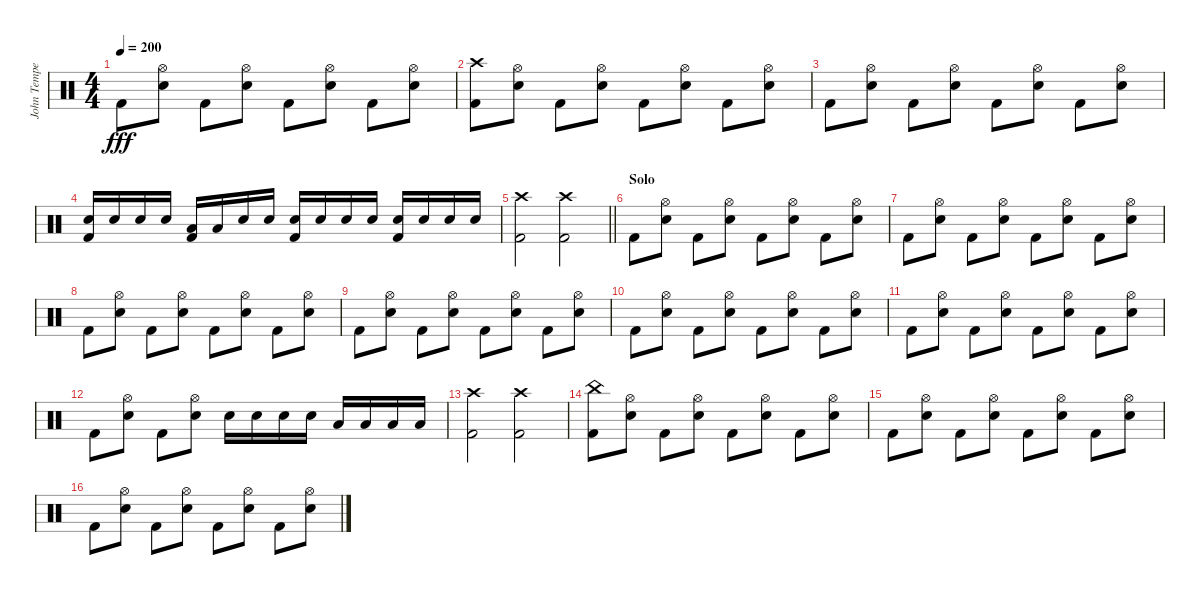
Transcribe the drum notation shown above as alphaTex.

\track ("John Tempesta" "John Tempe") {instrument percussion}
\staff {score}
\articulation defaults
\ts (4 4)
\tempo 200
\clef neutral
\ks c "Kick (hit) 2".8{dy fff}
("Electric Snare (hit)" "Hi-Hat (open)").8 "Kick (hit) 2".8 ("Electric Snare (hit)" "Hi-Hat (open)").8 "Kick (hit) 2".8 ("Electric Snare (hit)" "Hi-Hat (open)").8 "Kick (hit) 2".8 ("Electric Snare (hit)" "Hi-Hat (open)").8 |
("Crash high (hit)" "Kick (hit) 2").8 ("Electric Snare (hit)" "Hi-Hat (open)").8 "Kick (hit) 2".8 ("Electric Snare (hit)" "Hi-Hat (open)").8 "Kick (hit) 2".8 ("Electric Snare (hit)" "Hi-Hat (open)").8 "Kick (hit) 2".8 ("Electric Snare (hit)" "Hi-Hat (open)").8 |
"Kick (hit) 2".8 ("Electric Snare (hit)" "Hi-Hat (open)").8 "Kick (hit) 2".8 ("Electric Snare (hit)" "Hi-Hat (open)").8 "Kick (hit) 2".8 ("Electric Snare (hit)" "Hi-Hat (open)").8 "Kick (hit) 2".8 ("Electric Snare (hit)" "Hi-Hat (open)").8 |
("Electric Snare (hit)" "Kick (hit) 2").16 "Electric Snare (hit)".16 "Electric Snare (hit)".16 "Electric Snare (hit)".16 ("Low Floor Tom (hit)" "Kick (hit) 2").16 "Low Floor Tom (hit)".16 "Electric Snare (hit)".16 "Electric Snare (hit)".16 ("Electric Snare (hit)" "Kick (hit) 2").16 "Electric Snare (hit)".16 "Electric Snare (hit)".16 "Electric Snare (hit)".16 ("Electric Snare (hit)" "Kick (hit) 2").16 "Electric Snare (hit)".16 "Electric Snare (hit)".16 "Electric Snare (hit)".16 |
\barLineRight lightlight
("Crash high (hit)" "Kick (hit) 2").2 ("Crash high (hit)" "Kick (hit) 2").2 |
\section ("" "Solo")
"Kick (hit) 2".8 ("Electric Snare (hit)" "Hi-Hat (open)").8 "Kick (hit) 2".8 ("Electric Snare (hit)" "Hi-Hat (open)").8 "Kick (hit) 2".8 ("Electric Snare (hit)" "Hi-Hat (open)").8 "Kick (hit) 2".8 ("Electric Snare (hit)" "Hi-Hat (open)").8 |
"Kick (hit) 2".8 ("Electric Snare (hit)" "Hi-Hat (open)").8 "Kick (hit) 2".8 ("Electric Snare (hit)" "Hi-Hat (open)").8 "Kick (hit) 2".8 ("Electric Snare (hit)" "Hi-Hat (open)").8 "Kick (hit) 2".8 ("Electric Snare (hit)" "Hi-Hat (open)").8 |
"Kick (hit) 2".8 ("Electric Snare (hit)" "Hi-Hat (open)").8 "Kick (hit) 2".8 ("Electric Snare (hit)" "Hi-Hat (open)").8 "Kick (hit) 2".8 ("Electric Snare (hit)" "Hi-Hat (open)").8 "Kick (hit) 2".8 ("Electric Snare (hit)" "Hi-Hat (open)").8 |
"Kick (hit) 2".8 ("Electric Snare (hit)" "Hi-Hat (open)").8 "Kick (hit) 2".8 ("Electric Snare (hit)" "Hi-Hat (open)").8 "Kick (hit) 2".8 ("Electric Snare (hit)" "Hi-Hat (open)").8 "Kick (hit) 2".8 ("Electric Snare (hit)" "Hi-Hat (open)").8 |
"Kick (hit) 2".8 ("Electric Snare (hit)" "Hi-Hat (open)").8 "Kick (hit) 2".8 ("Electric Snare (hit)" "Hi-Hat (open)").8 "Kick (hit) 2".8 ("Electric Snare (hit)" "Hi-Hat (open)").8 "Kick (hit) 2".8 ("Electric Snare (hit)" "Hi-Hat (open)").8 |
"Kick (hit) 2".8 ("Electric Snare (hit)" "Hi-Hat (open)").8 "Kick (hit) 2".8 ("Electric Snare (hit)" "Hi-Hat (open)").8 "Kick (hit) 2".8 ("Electric Snare (hit)" "Hi-Hat (open)").8 "Kick (hit) 2".8 ("Electric Snare (hit)" "Hi-Hat (open)").8 |
"Kick (hit) 2".8 ("Electric Snare (hit)" "Hi-Hat (open)").8 "Kick (hit) 2".8 ("Electric Snare (hit)" "Hi-Hat (open)").8 "Electric Snare (hit)".16 "Electric Snare (hit)".16 "Electric Snare (hit)".16 "Electric Snare (hit)".16 "Low Floor Tom (hit)".16 "Low Floor Tom (hit)".16 "Low Floor Tom (hit)".16 "Low Floor Tom (hit)".16 |
("Crash high (hit)" "Kick (hit) 2").2 ("Crash high (hit)" "Kick (hit) 2").2 |
("China (hit)" "Kick (hit) 2").8 ("Electric Snare (hit)" "Hi-Hat (open)").8 "Kick (hit) 2".8 ("Electric Snare (hit)" "Hi-Hat (open)").8 "Kick (hit) 2".8 ("Electric Snare (hit)" "Hi-Hat (open)").8 "Kick (hit) 2".8 ("Electric Snare (hit)" "Hi-Hat (open)").8 |
"Kick (hit) 2".8 ("Electric Snare (hit)" "Hi-Hat (open)").8 "Kick (hit) 2".8 ("Electric Snare (hit)" "Hi-Hat (open)").8 "Kick (hit) 2".8 ("Electric Snare (hit)" "Hi-Hat (open)").8 "Kick (hit) 2".8 ("Electric Snare (hit)" "Hi-Hat (open)").8 |
"Kick (hit) 2".8 ("Electric Snare (hit)" "Hi-Hat (open)").8 "Kick (hit) 2".8 ("Electric Snare (hit)" "Hi-Hat (open)").8 "Kick (hit) 2".8 ("Electric Snare (hit)" "Hi-Hat (open)").8 "Kick (hit) 2".8 ("Electric Snare (hit)" "Hi-Hat (open)").8
